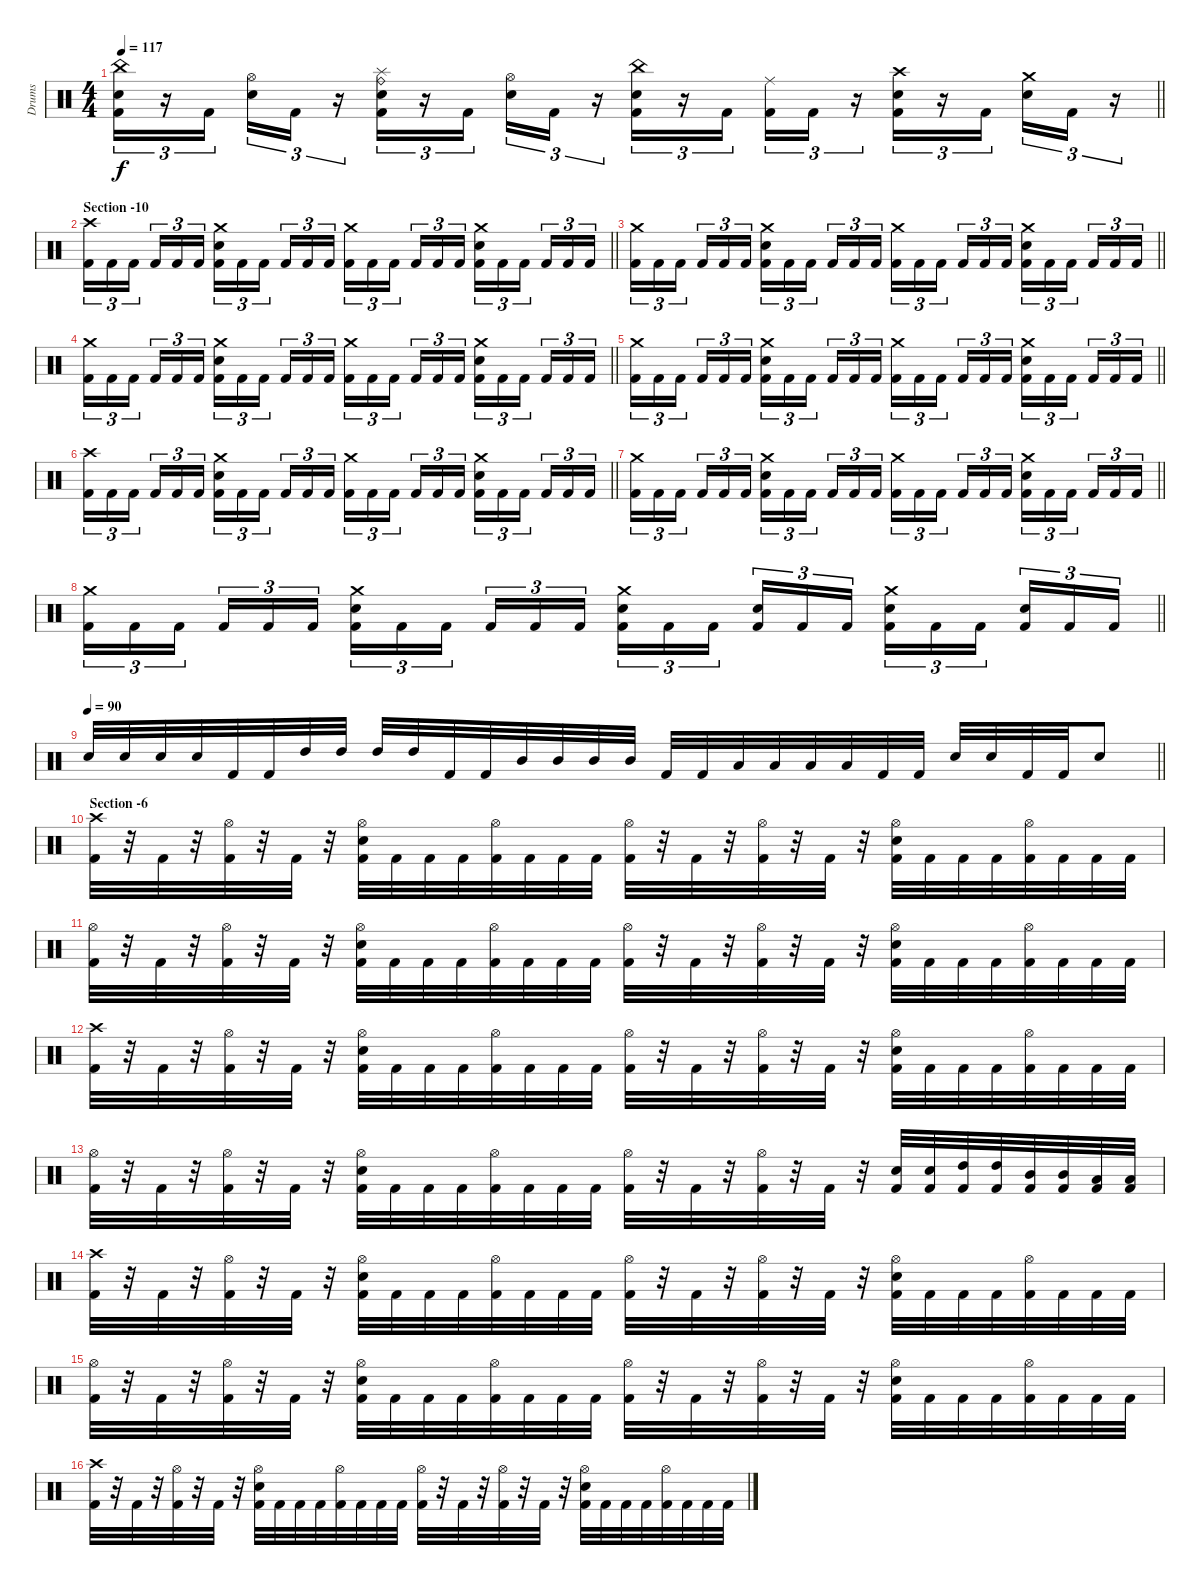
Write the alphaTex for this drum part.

\track ("Drums" "Drums") {instrument percussion}
\staff {score}
\articulation defaults
\ts (4 4)
\tempo 117
\clef neutral
\barLineRight lightlight
\ks c
("China (hit)" "Snare (hit) 2" "Kick (hit) 2").16{tu (3 2) dy f} r.16{tu (3 2)} "Kick (hit) 2".16{tu (3 2) beam splitsecondary} ("Hi-Hat (open)" "Snare (hit) 2").16{tu (3 2)} "Kick (hit) 2".16{tu (3 2)} r.16{tu (3 2)} ("Splash (hit)" "Ride (bell)" "Snare (hit) 2" "Kick (hit) 2").16{tu (3 2)} r.16{tu (3 2)} "Kick (hit) 2".16{tu (3 2) beam splitsecondary} ("Hi-Hat (open)" "Snare (hit) 2").16{tu (3 2)} "Kick (hit) 2".16{tu (3 2)} r.16{tu (3 2)} ("China (hit)" "Snare (hit) 2" "Kick (hit) 2").16{tu (3 2)} r.16{tu (3 2)} "Kick (hit) 2".16{tu (3 2) beam splitsecondary} ("Ride (middle)" "Kick (hit) 2").16{tu (3 2)} "Kick (hit) 2".16{tu (3 2)} r.16{tu (3 2)} ("Crash high (hit)" "Snare (hit) 2" "Kick (hit) 2").16{tu (3 2)} r.16{tu (3 2)} "Kick (hit) 2".16{tu (3 2) beam splitsecondary} ("Crash medium (hit)" "Snare (hit) 2").16{tu (3 2)} "Kick (hit) 2".16{tu (3 2)} r.16{tu (3 2)} |
\section ("" "Section -10")
\barLineRight lightlight
("Crash high (hit)" "Kick (hit) 2").16{tu (3 2)} "Kick (hit) 2".16{tu (3 2)} "Kick (hit) 2".16{tu (3 2) beam splitsecondary} "Kick (hit) 2".16{tu (3 2)} "Kick (hit) 2".16{tu (3 2)} "Kick (hit) 2".16{tu (3 2)} ("Crash medium (hit)" "Snare (hit) 2" "Kick (hit) 2").16{tu (3 2)} "Kick (hit) 2".16{tu (3 2)} "Kick (hit) 2".16{tu (3 2) beam splitsecondary} "Kick (hit) 2".16{tu (3 2)} "Kick (hit) 2".16{tu (3 2)} "Kick (hit) 2".16{tu (3 2)} ("Crash medium (hit)" "Kick (hit) 2").16{tu (3 2)} "Kick (hit) 2".16{tu (3 2)} "Kick (hit) 2".16{tu (3 2) beam splitsecondary} "Kick (hit) 2".16{tu (3 2)} "Kick (hit) 2".16{tu (3 2)} "Kick (hit) 2".16{tu (3 2)} ("Crash medium (hit)" "Snare (hit) 2" "Kick (hit) 2").16{tu (3 2)} "Kick (hit) 2".16{tu (3 2)} "Kick (hit) 2".16{tu (3 2) beam splitsecondary} "Kick (hit) 2".16{tu (3 2)} "Kick (hit) 2".16{tu (3 2)} "Kick (hit) 2".16{tu (3 2)} |
\barLineRight lightlight
("Crash medium (hit)" "Kick (hit) 2").16{tu (3 2)} "Kick (hit) 2".16{tu (3 2)} "Kick (hit) 2".16{tu (3 2) beam splitsecondary} "Kick (hit) 2".16{tu (3 2)} "Kick (hit) 2".16{tu (3 2)} "Kick (hit) 2".16{tu (3 2)} ("Crash medium (hit)" "Snare (hit) 2" "Kick (hit) 2").16{tu (3 2)} "Kick (hit) 2".16{tu (3 2)} "Kick (hit) 2".16{tu (3 2) beam splitsecondary} "Kick (hit) 2".16{tu (3 2)} "Kick (hit) 2".16{tu (3 2)} "Kick (hit) 2".16{tu (3 2)} ("Crash medium (hit)" "Kick (hit) 2").16{tu (3 2)} "Kick (hit) 2".16{tu (3 2)} "Kick (hit) 2".16{tu (3 2) beam splitsecondary} "Kick (hit) 2".16{tu (3 2)} "Kick (hit) 2".16{tu (3 2)} "Kick (hit) 2".16{tu (3 2)} ("Crash medium (hit)" "Snare (hit) 2" "Kick (hit) 2").16{tu (3 2)} "Kick (hit) 2".16{tu (3 2)} "Kick (hit) 2".16{tu (3 2) beam splitsecondary} "Kick (hit) 2".16{tu (3 2)} "Kick (hit) 2".16{tu (3 2)} "Kick (hit) 2".16{tu (3 2)} |
\barLineRight lightlight
("Crash medium (hit)" "Kick (hit) 2").16{tu (3 2)} "Kick (hit) 2".16{tu (3 2)} "Kick (hit) 2".16{tu (3 2) beam splitsecondary} "Kick (hit) 2".16{tu (3 2)} "Kick (hit) 2".16{tu (3 2)} "Kick (hit) 2".16{tu (3 2)} ("Crash medium (hit)" "Snare (hit) 2" "Kick (hit) 2").16{tu (3 2)} "Kick (hit) 2".16{tu (3 2)} "Kick (hit) 2".16{tu (3 2) beam splitsecondary} "Kick (hit) 2".16{tu (3 2)} "Kick (hit) 2".16{tu (3 2)} "Kick (hit) 2".16{tu (3 2)} ("Crash medium (hit)" "Kick (hit) 2").16{tu (3 2)} "Kick (hit) 2".16{tu (3 2)} "Kick (hit) 2".16{tu (3 2) beam splitsecondary} "Kick (hit) 2".16{tu (3 2)} "Kick (hit) 2".16{tu (3 2)} "Kick (hit) 2".16{tu (3 2)} ("Crash medium (hit)" "Snare (hit) 2" "Kick (hit) 2").16{tu (3 2)} "Kick (hit) 2".16{tu (3 2)} "Kick (hit) 2".16{tu (3 2) beam splitsecondary} "Kick (hit) 2".16{tu (3 2)} "Kick (hit) 2".16{tu (3 2)} "Kick (hit) 2".16{tu (3 2)} |
\barLineRight lightlight
("Crash medium (hit)" "Kick (hit) 2").16{tu (3 2)} "Kick (hit) 2".16{tu (3 2)} "Kick (hit) 2".16{tu (3 2) beam splitsecondary} "Kick (hit) 2".16{tu (3 2)} "Kick (hit) 2".16{tu (3 2)} "Kick (hit) 2".16{tu (3 2)} ("Crash medium (hit)" "Snare (hit) 2" "Kick (hit) 2").16{tu (3 2)} "Kick (hit) 2".16{tu (3 2)} "Kick (hit) 2".16{tu (3 2) beam splitsecondary} "Kick (hit) 2".16{tu (3 2)} "Kick (hit) 2".16{tu (3 2)} "Kick (hit) 2".16{tu (3 2)} ("Crash medium (hit)" "Kick (hit) 2").16{tu (3 2)} "Kick (hit) 2".16{tu (3 2)} "Kick (hit) 2".16{tu (3 2) beam splitsecondary} "Kick (hit) 2".16{tu (3 2)} "Kick (hit) 2".16{tu (3 2)} "Kick (hit) 2".16{tu (3 2)} ("Crash medium (hit)" "Snare (hit) 2" "Kick (hit) 2").16{tu (3 2)} "Kick (hit) 2".16{tu (3 2)} "Kick (hit) 2".16{tu (3 2) beam splitsecondary} "Kick (hit) 2".16{tu (3 2)} "Kick (hit) 2".16{tu (3 2)} "Kick (hit) 2".16{tu (3 2)} |
\barLineRight lightlight
("Crash high (hit)" "Kick (hit) 2").16{tu (3 2)} "Kick (hit) 2".16{tu (3 2)} "Kick (hit) 2".16{tu (3 2) beam splitsecondary} "Kick (hit) 2".16{tu (3 2)} "Kick (hit) 2".16{tu (3 2)} "Kick (hit) 2".16{tu (3 2)} ("Crash medium (hit)" "Snare (hit) 2" "Kick (hit) 2").16{tu (3 2)} "Kick (hit) 2".16{tu (3 2)} "Kick (hit) 2".16{tu (3 2) beam splitsecondary} "Kick (hit) 2".16{tu (3 2)} "Kick (hit) 2".16{tu (3 2)} "Kick (hit) 2".16{tu (3 2)} ("Crash medium (hit)" "Kick (hit) 2").16{tu (3 2)} "Kick (hit) 2".16{tu (3 2)} "Kick (hit) 2".16{tu (3 2) beam splitsecondary} "Kick (hit) 2".16{tu (3 2)} "Kick (hit) 2".16{tu (3 2)} "Kick (hit) 2".16{tu (3 2)} ("Crash medium (hit)" "Snare (hit) 2" "Kick (hit) 2").16{tu (3 2)} "Kick (hit) 2".16{tu (3 2)} "Kick (hit) 2".16{tu (3 2) beam splitsecondary} "Kick (hit) 2".16{tu (3 2)} "Kick (hit) 2".16{tu (3 2)} "Kick (hit) 2".16{tu (3 2)} |
\barLineRight lightlight
("Crash medium (hit)" "Kick (hit) 2").16{tu (3 2)} "Kick (hit) 2".16{tu (3 2)} "Kick (hit) 2".16{tu (3 2) beam splitsecondary} "Kick (hit) 2".16{tu (3 2)} "Kick (hit) 2".16{tu (3 2)} "Kick (hit) 2".16{tu (3 2)} ("Crash medium (hit)" "Snare (hit) 2" "Kick (hit) 2").16{tu (3 2)} "Kick (hit) 2".16{tu (3 2)} "Kick (hit) 2".16{tu (3 2) beam splitsecondary} "Kick (hit) 2".16{tu (3 2)} "Kick (hit) 2".16{tu (3 2)} "Kick (hit) 2".16{tu (3 2)} ("Crash medium (hit)" "Kick (hit) 2").16{tu (3 2)} "Kick (hit) 2".16{tu (3 2)} "Kick (hit) 2".16{tu (3 2) beam splitsecondary} "Kick (hit) 2".16{tu (3 2)} "Kick (hit) 2".16{tu (3 2)} "Kick (hit) 2".16{tu (3 2)} ("Crash medium (hit)" "Snare (hit) 2" "Kick (hit) 2").16{tu (3 2)} "Kick (hit) 2".16{tu (3 2)} "Kick (hit) 2".16{tu (3 2) beam splitsecondary} "Kick (hit) 2".16{tu (3 2)} "Kick (hit) 2".16{tu (3 2)} "Kick (hit) 2".16{tu (3 2)} |
\barLineRight lightlight
("Crash medium (hit)" "Kick (hit) 2").16{tu (3 2)} "Kick (hit) 2".16{tu (3 2)} "Kick (hit) 2".16{tu (3 2) beam splitsecondary} "Kick (hit) 2".16{tu (3 2)} "Kick (hit) 2".16{tu (3 2)} "Kick (hit) 2".16{tu (3 2)} ("Crash medium (hit)" "Snare (hit) 2" "Kick (hit) 2").16{tu (3 2)} "Kick (hit) 2".16{tu (3 2)} "Kick (hit) 2".16{tu (3 2) beam splitsecondary} "Kick (hit) 2".16{tu (3 2)} "Kick (hit) 2".16{tu (3 2)} "Kick (hit) 2".16{tu (3 2)} ("Crash medium (hit)" "Snare (hit) 2" "Kick (hit) 2").16{tu (3 2)} "Kick (hit) 2".16{tu (3 2)} "Kick (hit) 2".16{tu (3 2) beam splitsecondary} ("Snare (hit) 2" "Kick (hit) 2").16{tu (3 2)} "Kick (hit) 2".16{tu (3 2)} "Kick (hit) 2".16{tu (3 2)} ("Crash medium (hit)" "Snare (hit) 2" "Kick (hit) 2").16{tu (3 2)} "Kick (hit) 2".16{tu (3 2)} "Kick (hit) 2".16{tu (3 2) beam splitsecondary} ("Snare (hit) 2" "Kick (hit) 2").16{tu (3 2)} "Kick (hit) 2".16{tu (3 2)} "Kick (hit) 2".16{tu (3 2)} |
\tempo 90
\barLineRight lightlight "Snare (hit) 2".32 "Snare (hit) 2".32 "Snare (hit) 2".32 "Snare (hit) 2".32 "Kick (hit) 2".32 "Kick (hit) 2".32 "High Tom (hit)".32 "High Tom (hit)".32 "High Tom (hit)".32 "High Tom (hit)".32 "Kick (hit) 2".32 "Kick (hit) 2".32 "Mid Tom (hit)".32 "Mid Tom (hit)".32 "Mid Tom (hit)".32 "Mid Tom (hit)".32 "Kick (hit) 2".32 "Kick (hit) 2".32 "Low Tom (hit)".32 "Low Tom (hit)".32 "Low Tom (hit)".32 "Low Tom (hit)".32 "Kick (hit) 2".32 "Kick (hit) 2".32 "Snare (hit) 2".32 "Snare (hit) 2".32 "Kick (hit) 2".32 "Kick (hit) 2".32 "Snare (hit) 2".8
|
\section ("" "Section -6")
("Crash high (hit)" "Kick (hit) 2").32 r.32 "Kick (hit) 2".32 r.32 ("Hi-Hat (open)" "Kick (hit) 2").32 r.32 "Kick (hit) 2".32 r.32 ("Hi-Hat (open)" "Snare (hit) 2" "Kick (hit) 2").32 "Kick (hit) 2".32 "Kick (hit) 2".32 "Kick (hit) 2".32 ("Hi-Hat (open)" "Kick (hit) 2").32 "Kick (hit) 2".32 "Kick (hit) 2".32 "Kick (hit) 2".32 ("Hi-Hat (open)" "Kick (hit) 2").32 r.32 "Kick (hit) 2".32 r.32 ("Hi-Hat (open)" "Kick (hit) 2").32 r.32 "Kick (hit) 2".32 r.32 ("Hi-Hat (open)" "Snare (hit) 2" "Kick (hit) 2").32 "Kick (hit) 2".32 "Kick (hit) 2".32 "Kick (hit) 2".32 ("Hi-Hat (open)" "Kick (hit) 2").32 "Kick (hit) 2".32 "Kick (hit) 2".32 "Kick (hit) 2".32 |
("Hi-Hat (open)" "Kick (hit) 2").32 r.32 "Kick (hit) 2".32 r.32 ("Hi-Hat (open)" "Kick (hit) 2").32 r.32 "Kick (hit) 2".32 r.32 ("Hi-Hat (open)" "Snare (hit) 2" "Kick (hit) 2").32 "Kick (hit) 2".32 "Kick (hit) 2".32 "Kick (hit) 2".32 ("Hi-Hat (open)" "Kick (hit) 2").32 "Kick (hit) 2".32 "Kick (hit) 2".32 "Kick (hit) 2".32 ("Hi-Hat (open)" "Kick (hit) 2").32 r.32 "Kick (hit) 2".32 r.32 ("Hi-Hat (open)" "Kick (hit) 2").32 r.32 "Kick (hit) 2".32 r.32 ("Hi-Hat (open)" "Snare (hit) 2" "Kick (hit) 2").32 "Kick (hit) 2".32 "Kick (hit) 2".32 "Kick (hit) 2".32 ("Hi-Hat (open)" "Kick (hit) 2").32 "Kick (hit) 2".32 "Kick (hit) 2".32 "Kick (hit) 2".32 |
("Crash high (hit)" "Kick (hit) 2").32 r.32 "Kick (hit) 2".32 r.32 ("Hi-Hat (open)" "Kick (hit) 2").32 r.32 "Kick (hit) 2".32 r.32 ("Hi-Hat (open)" "Snare (hit) 2" "Kick (hit) 2").32 "Kick (hit) 2".32 "Kick (hit) 2".32 "Kick (hit) 2".32 ("Hi-Hat (open)" "Kick (hit) 2").32 "Kick (hit) 2".32 "Kick (hit) 2".32 "Kick (hit) 2".32 ("Hi-Hat (open)" "Kick (hit) 2").32 r.32 "Kick (hit) 2".32 r.32 ("Hi-Hat (open)" "Kick (hit) 2").32 r.32 "Kick (hit) 2".32 r.32 ("Hi-Hat (open)" "Snare (hit) 2" "Kick (hit) 2").32 "Kick (hit) 2".32 "Kick (hit) 2".32 "Kick (hit) 2".32 ("Hi-Hat (open)" "Kick (hit) 2").32 "Kick (hit) 2".32 "Kick (hit) 2".32 "Kick (hit) 2".32 |
("Hi-Hat (open)" "Kick (hit) 2").32 r.32 "Kick (hit) 2".32 r.32 ("Hi-Hat (open)" "Kick (hit) 2").32 r.32 "Kick (hit) 2".32 r.32 ("Hi-Hat (open)" "Snare (hit) 2" "Kick (hit) 2").32 "Kick (hit) 2".32 "Kick (hit) 2".32 "Kick (hit) 2".32 ("Hi-Hat (open)" "Kick (hit) 2").32 "Kick (hit) 2".32 "Kick (hit) 2".32 "Kick (hit) 2".32 ("Hi-Hat (open)" "Kick (hit) 2").32 r.32 "Kick (hit) 2".32 r.32 ("Hi-Hat (open)" "Kick (hit) 2").32 r.32 "Kick (hit) 2".32 r.32 ("Snare (hit) 2" "Kick (hit) 2").32 ("Snare (hit) 2" "Kick (hit) 2").32 ("High Tom (hit)" "Kick (hit) 2").32 ("High Tom (hit)" "Kick (hit) 2").32 ("Mid Tom (hit)" "Kick (hit) 2").32 ("Mid Tom (hit)" "Kick (hit) 2").32 ("Low Tom (hit)" "Kick (hit) 2").32 ("Low Tom (hit)" "Kick (hit) 2").32 |
("Crash high (hit)" "Kick (hit) 2").32 r.32 "Kick (hit) 2".32 r.32 ("Hi-Hat (open)" "Kick (hit) 2").32 r.32 "Kick (hit) 2".32 r.32 ("Hi-Hat (open)" "Snare (hit) 2" "Kick (hit) 2").32 "Kick (hit) 2".32 "Kick (hit) 2".32 "Kick (hit) 2".32 ("Hi-Hat (open)" "Kick (hit) 2").32 "Kick (hit) 2".32 "Kick (hit) 2".32 "Kick (hit) 2".32 ("Hi-Hat (open)" "Kick (hit) 2").32 r.32 "Kick (hit) 2".32 r.32 ("Hi-Hat (open)" "Kick (hit) 2").32 r.32 "Kick (hit) 2".32 r.32 ("Hi-Hat (open)" "Snare (hit) 2" "Kick (hit) 2").32 "Kick (hit) 2".32 "Kick (hit) 2".32 "Kick (hit) 2".32 ("Hi-Hat (open)" "Kick (hit) 2").32 "Kick (hit) 2".32 "Kick (hit) 2".32 "Kick (hit) 2".32 |
("Hi-Hat (open)" "Kick (hit) 2").32 r.32 "Kick (hit) 2".32 r.32 ("Hi-Hat (open)" "Kick (hit) 2").32 r.32 "Kick (hit) 2".32 r.32 ("Hi-Hat (open)" "Snare (hit) 2" "Kick (hit) 2").32 "Kick (hit) 2".32 "Kick (hit) 2".32 "Kick (hit) 2".32 ("Hi-Hat (open)" "Kick (hit) 2").32 "Kick (hit) 2".32 "Kick (hit) 2".32 "Kick (hit) 2".32 ("Hi-Hat (open)" "Kick (hit) 2").32 r.32 "Kick (hit) 2".32 r.32 ("Hi-Hat (open)" "Kick (hit) 2").32 r.32 "Kick (hit) 2".32 r.32 ("Hi-Hat (open)" "Snare (hit) 2" "Kick (hit) 2").32 "Kick (hit) 2".32 "Kick (hit) 2".32 "Kick (hit) 2".32 ("Hi-Hat (open)" "Kick (hit) 2").32 "Kick (hit) 2".32 "Kick (hit) 2".32 "Kick (hit) 2".32 |
("Crash high (hit)" "Kick (hit) 2").32 r.32 "Kick (hit) 2".32 r.32 ("Hi-Hat (open)" "Kick (hit) 2").32 r.32 "Kick (hit) 2".32 r.32 ("Hi-Hat (open)" "Snare (hit) 2" "Kick (hit) 2").32 "Kick (hit) 2".32 "Kick (hit) 2".32 "Kick (hit) 2".32 ("Hi-Hat (open)" "Kick (hit) 2").32 "Kick (hit) 2".32 "Kick (hit) 2".32 "Kick (hit) 2".32 ("Hi-Hat (open)" "Kick (hit) 2").32 r.32 "Kick (hit) 2".32 r.32 ("Hi-Hat (open)" "Kick (hit) 2").32 r.32 "Kick (hit) 2".32 r.32 ("Hi-Hat (open)" "Snare (hit) 2" "Kick (hit) 2").32 "Kick (hit) 2".32 "Kick (hit) 2".32 "Kick (hit) 2".32 ("Hi-Hat (open)" "Kick (hit) 2").32 "Kick (hit) 2".32 "Kick (hit) 2".32 "Kick (hit) 2".32
